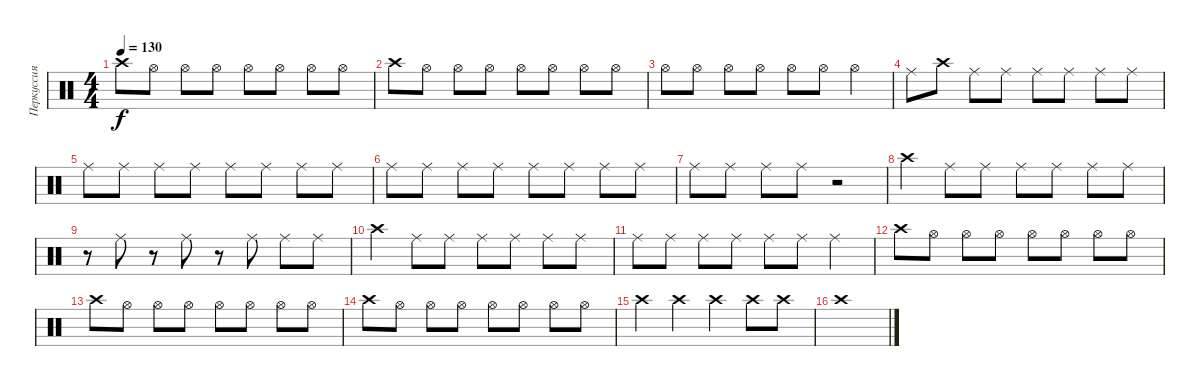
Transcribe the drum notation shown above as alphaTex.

\track ("Перкуссия" "Перкуссия") {instrument percussion}
\staff {score}
\articulation defaults
\ts (4 4)
\tempo 130
\clef neutral
\ks c "Crash high (hit)".8{dy f} "Hi-Hat (open)".8 "Hi-Hat (open)".8 "Hi-Hat (open)".8 "Hi-Hat (open)".8 "Hi-Hat (open)".8 "Hi-Hat (open)".8 "Hi-Hat (open)".8
|
"Crash high (hit)".8 "Hi-Hat (open)".8 "Hi-Hat (open)".8 "Hi-Hat (open)".8 "Hi-Hat (open)".8 "Hi-Hat (open)".8 "Hi-Hat (open)".8 "Hi-Hat (open)".8 |
"Hi-Hat (open)".8 "Hi-Hat (open)".8 "Hi-Hat (open)".8 "Hi-Hat (open)".8 "Hi-Hat (open)".8 "Hi-Hat (open)".8 "Hi-Hat (open)".4 |
"Ride (middle)".8 "Crash high (hit)".8 "Ride (middle)".8 "Ride (middle)".8 "Ride (middle)".8 "Ride (middle)".8 "Ride (middle)".8 "Ride (middle)".8 |
"Ride (middle)".8 "Ride (middle)".8 "Ride (middle)".8 "Ride (middle)".8 "Ride (middle)".8 "Ride (middle)".8 "Ride (middle)".8 "Ride (middle)".8 |
"Ride (middle)".8 "Ride (middle)".8 "Ride (middle)".8 "Ride (middle)".8 "Ride (middle)".8 "Ride (middle)".8 "Ride (middle)".8 "Ride (middle)".8 |
"Ride (middle)".8 "Ride (middle)".8 "Ride (middle)".8 "Ride (middle)".8 r.2 |
"Crash high (hit)".4 "Ride (middle)".8 "Ride (middle)".8 "Ride (middle)".8 "Ride (middle)".8 "Ride (middle)".8 "Ride (middle)".8 |
r.8 "Ride (middle)".8 r.8 "Ride (middle)".8 r.8 "Ride (middle)".8 "Ride (middle)".8 "Ride (middle)".8 |
"Crash high (hit)".4 "Ride (middle)".8 "Ride (middle)".8 "Ride (middle)".8 "Ride (middle)".8 "Ride (middle)".8 "Ride (middle)".8 |
"Ride (middle)".8 "Ride (middle)".8 "Ride (middle)".8 "Ride (middle)".8 "Ride (middle)".8 "Ride (middle)".8 "Ride (middle)".4 |
"Crash high (hit)".8 "Hi-Hat (open)".8 "Hi-Hat (open)".8 "Hi-Hat (open)".8 "Hi-Hat (open)".8 "Hi-Hat (open)".8 "Hi-Hat (open)".8 "Hi-Hat (open)".8 |
"Crash high (hit)".8 "Hi-Hat (open)".8 "Hi-Hat (open)".8 "Hi-Hat (open)".8 "Hi-Hat (open)".8 "Hi-Hat (open)".8 "Hi-Hat (open)".8 "Hi-Hat (open)".8 |
"Crash high (hit)".8 "Hi-Hat (open)".8 "Hi-Hat (open)".8 "Hi-Hat (open)".8 "Hi-Hat (open)".8 "Hi-Hat (open)".8 "Hi-Hat (open)".8 "Hi-Hat (open)".8 |
"Crash high (hit)".4 "Crash high (hit)".4 "Crash high (hit)".4 "Crash high (hit)".8 "Crash high (hit)".8 |
"Crash high (hit)".1
